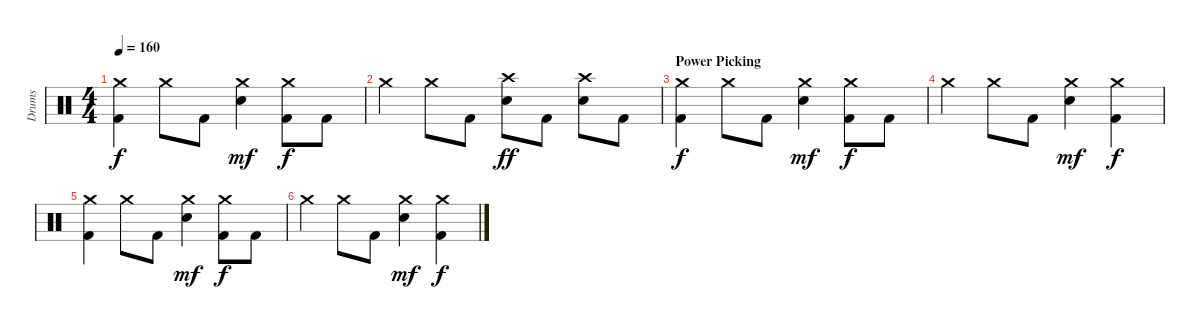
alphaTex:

\track ("Drums" "Drums") {instrument percussion}
\staff {score}
\articulation defaults
\ts (4 4)
\tempo 160
\clef neutral
\ks c
("Crash medium (hit)" "Kick (hit) 2").4{dy f} "Crash medium (hit)".8 "Kick (hit) 2".8 ("Crash medium (hit)" "Electric Snare (hit)").4{dy mf} ("Crash medium (hit)" "Kick (hit) 2").8{dy f} "Kick (hit) 2".8 |
"Crash medium (hit)".4 "Crash medium (hit)".8 "Kick (hit) 2".8 ("Crash high (hit)" "Electric Snare (hit)").8{dy ff} "Kick (hit) 2".8 ("Crash high (hit)" "Electric Snare (hit)").8 "Kick (hit) 2".8 |
\section ("" "Power Picking")
("Crash medium (hit)" "Kick (hit) 2").4{dy f volume 0} "Crash medium (hit)".8 "Kick (hit) 2".8 ("Crash medium (hit)" "Electric Snare (hit)").4{dy mf} ("Crash medium (hit)" "Kick (hit) 2").8{dy f} "Kick (hit) 2".8 |
"Crash medium (hit)".4 "Crash medium (hit)".8 "Kick (hit) 2".8 ("Crash medium (hit)" "Electric Snare (hit)").4{dy mf} ("Crash medium (hit)" "Kick (hit) 2").4{dy f} |
("Crash medium (hit)" "Kick (hit) 2").4 "Crash medium (hit)".8 "Kick (hit) 2".8 ("Crash medium (hit)" "Electric Snare (hit)").4{dy mf} ("Crash medium (hit)" "Kick (hit) 2").8{dy f} "Kick (hit) 2".8 |
"Crash medium (hit)".4 "Crash medium (hit)".8 "Kick (hit) 2".8 ("Crash medium (hit)" "Electric Snare (hit)").4{dy mf} ("Crash medium (hit)" "Kick (hit) 2").4{dy f}
